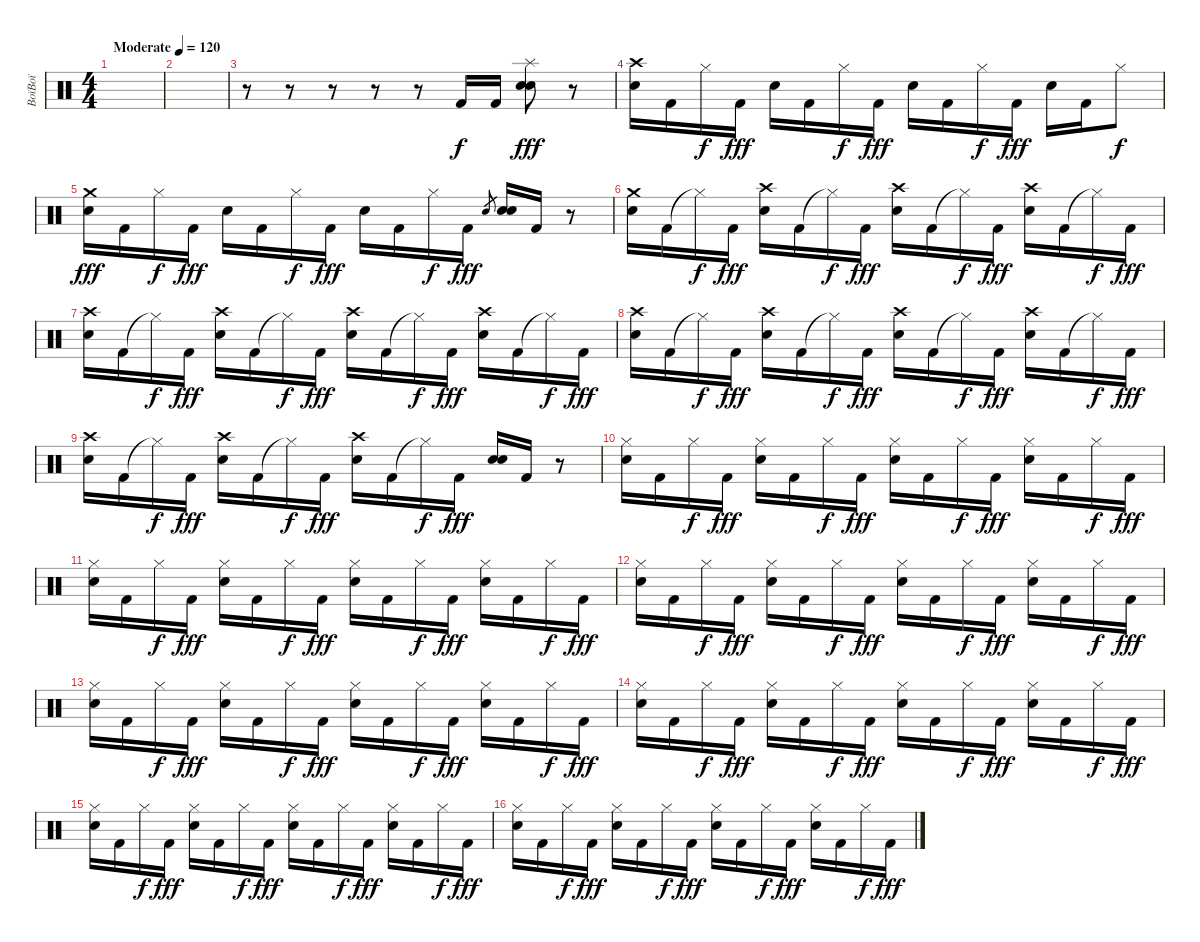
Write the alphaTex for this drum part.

\track ("BoïBoï" "BoïBoï") {instrument percussion}
\staff {score}
\articulation defaults
\ts (4 4)
\tempo (120 "Moderate")
\clef neutral
\ks c
|
|
r.8 r.8 r.8 r.8 r.8 "Kick (hit) 2".16 "Kick (hit) 2".16{dy f} ("Splash (hit)" "Electric Snare (hit)" "Snare (hit) 2").8{dy fff} r.8 |
("Crash high (hit)" "Electric Snare (hit)").16 "Kick (hit) 2".16 "Hi-Hat (closed)".16{dy f} "Kick (hit) 2".16{dy fff} "Electric Snare (hit)".16 "Kick (hit) 2".16 "Hi-Hat (closed)".16{dy f} "Kick (hit) 2".16{dy fff} "Electric Snare (hit)".16 "Kick (hit) 2".16 "Hi-Hat (closed)".16{dy f} "Kick (hit) 2".16{dy fff} "Electric Snare (hit)".16 "Kick (hit) 2".16 "Hi-Hat (closed)".8{dy f} |
("Crash medium (hit)" "Electric Snare (hit)").16{dy fff} "Kick (hit) 2".16 "Hi-Hat (closed)".16{dy f} "Kick (hit) 2".16{dy fff} "Electric Snare (hit)".16 "Kick (hit) 2".16 "Hi-Hat (closed)".16{dy f} "Kick (hit) 2".16{dy fff} "Electric Snare (hit)".16 "Kick (hit) 2".16 "Hi-Hat (closed)".16{dy f} "Kick (hit) 2".16{dy fff} "Electric Snare (hit)".8{gr} ("Electric Snare (hit)" "Snare (hit) 2").16 "Kick (hit) 2".16 r.8 |
("Crash medium (hit)" "Electric Snare (hit)").16 "Kick (hit) 2".16 "Hi-Hat (closed)"{t}.16{dy f} "Kick (hit) 2".16{dy fff} ("Crash high (hit)" "Electric Snare (hit)").16 "Kick (hit) 2".16 "Hi-Hat (closed)"{t}.16{dy f} "Kick (hit) 2".16{dy fff} ("Crash high (hit)" "Electric Snare (hit)").16 "Kick (hit) 2".16 "Hi-Hat (closed)"{t}.16{dy f} "Kick (hit) 2".16{dy fff} ("Crash high (hit)" "Electric Snare (hit)").16 "Kick (hit) 2".16 "Hi-Hat (closed)"{t}.16{dy f} "Kick (hit) 2".16{dy fff} |
("Crash high (hit)" "Electric Snare (hit)").16 "Kick (hit) 2".16 "Hi-Hat (closed)"{t}.16{dy f} "Kick (hit) 2".16{dy fff} ("Crash high (hit)" "Electric Snare (hit)").16 "Kick (hit) 2".16 "Hi-Hat (closed)"{t}.16{dy f} "Kick (hit) 2".16{dy fff} ("Crash high (hit)" "Electric Snare (hit)").16 "Kick (hit) 2".16 "Hi-Hat (closed)"{t}.16{dy f} "Kick (hit) 2".16{dy fff} ("Crash high (hit)" "Electric Snare (hit)").16 "Kick (hit) 2".16 "Hi-Hat (closed)"{t}.16{dy f} "Kick (hit) 2".16{dy fff} |
("Crash high (hit)" "Electric Snare (hit)").16 "Kick (hit) 2".16 "Hi-Hat (closed)"{t}.16{dy f} "Kick (hit) 2".16{dy fff} ("Crash high (hit)" "Electric Snare (hit)").16 "Kick (hit) 2".16 "Hi-Hat (closed)"{t}.16{dy f} "Kick (hit) 2".16{dy fff} ("Crash high (hit)" "Electric Snare (hit)").16 "Kick (hit) 2".16 "Hi-Hat (closed)"{t}.16{dy f} "Kick (hit) 2".16{dy fff} ("Crash high (hit)" "Electric Snare (hit)").16 "Kick (hit) 2".16 "Hi-Hat (closed)"{t}.16{dy f} "Kick (hit) 2".16{dy fff} |
("Crash high (hit)" "Electric Snare (hit)").16 "Kick (hit) 2".16 "Hi-Hat (closed)"{t}.16{dy f} "Kick (hit) 2".16{dy fff} ("Crash high (hit)" "Electric Snare (hit)").16 "Kick (hit) 2".16 "Hi-Hat (closed)"{t}.16{dy f} "Kick (hit) 2".16{dy fff} ("Crash high (hit)" "Electric Snare (hit)").16 "Kick (hit) 2".16 "Hi-Hat (closed)"{t}.16{dy f} "Kick (hit) 2".16{dy fff} ("Electric Snare (hit)" "Snare (hit) 2").16 "Kick (hit) 2".16 r.8 |
("Hi-Hat (closed)" "Electric Snare (hit)").16 "Kick (hit) 2".16 "Hi-Hat (closed)".16{dy f} "Kick (hit) 2".16{dy fff} ("Hi-Hat (closed)" "Electric Snare (hit)").16 "Kick (hit) 2".16 "Hi-Hat (closed)".16{dy f} "Kick (hit) 2".16{dy fff} ("Hi-Hat (closed)" "Electric Snare (hit)").16 "Kick (hit) 2".16 "Hi-Hat (closed)".16{dy f} "Kick (hit) 2".16{dy fff} ("Hi-Hat (closed)" "Electric Snare (hit)").16 "Kick (hit) 2".16 "Hi-Hat (closed)".16{dy f} "Kick (hit) 2".16{dy fff} |
("Hi-Hat (closed)" "Electric Snare (hit)").16 "Kick (hit) 2".16 "Hi-Hat (closed)".16{dy f} "Kick (hit) 2".16{dy fff} ("Hi-Hat (closed)" "Electric Snare (hit)").16 "Kick (hit) 2".16 "Hi-Hat (closed)".16{dy f} "Kick (hit) 2".16{dy fff} ("Hi-Hat (closed)" "Electric Snare (hit)").16 "Kick (hit) 2".16 "Hi-Hat (closed)".16{dy f} "Kick (hit) 2".16{dy fff} ("Hi-Hat (closed)" "Electric Snare (hit)").16 "Kick (hit) 2".16 "Hi-Hat (closed)".16{dy f} "Kick (hit) 2".16{dy fff} |
("Hi-Hat (closed)" "Electric Snare (hit)").16 "Kick (hit) 2".16 "Hi-Hat (closed)".16{dy f} "Kick (hit) 2".16{dy fff} ("Hi-Hat (closed)" "Electric Snare (hit)").16 "Kick (hit) 2".16 "Hi-Hat (closed)".16{dy f} "Kick (hit) 2".16{dy fff} ("Hi-Hat (closed)" "Electric Snare (hit)").16 "Kick (hit) 2".16 "Hi-Hat (closed)".16{dy f} "Kick (hit) 2".16{dy fff} ("Hi-Hat (closed)" "Electric Snare (hit)").16 "Kick (hit) 2".16 "Hi-Hat (closed)".16{dy f} "Kick (hit) 2".16{dy fff} |
("Hi-Hat (closed)" "Electric Snare (hit)").16 "Kick (hit) 2".16 "Hi-Hat (closed)".16{dy f} "Kick (hit) 2".16{dy fff} ("Hi-Hat (closed)" "Electric Snare (hit)").16 "Kick (hit) 2".16 "Hi-Hat (closed)".16{dy f} "Kick (hit) 2".16{dy fff} ("Hi-Hat (closed)" "Electric Snare (hit)").16 "Kick (hit) 2".16 "Hi-Hat (closed)".16{dy f} "Kick (hit) 2".16{dy fff} ("Hi-Hat (closed)" "Electric Snare (hit)").16 "Kick (hit) 2".16 "Hi-Hat (closed)".16{dy f} "Kick (hit) 2".16{dy fff} |
("Hi-Hat (closed)" "Electric Snare (hit)").16 "Kick (hit) 2".16 "Hi-Hat (closed)".16{dy f} "Kick (hit) 2".16{dy fff} ("Hi-Hat (closed)" "Electric Snare (hit)").16 "Kick (hit) 2".16 "Hi-Hat (closed)".16{dy f} "Kick (hit) 2".16{dy fff} ("Hi-Hat (closed)" "Electric Snare (hit)").16 "Kick (hit) 2".16 "Hi-Hat (closed)".16{dy f} "Kick (hit) 2".16{dy fff} ("Hi-Hat (closed)" "Electric Snare (hit)").16 "Kick (hit) 2".16 "Hi-Hat (closed)".16{dy f} "Kick (hit) 2".16{dy fff} |
("Hi-Hat (closed)" "Electric Snare (hit)").16 "Kick (hit) 2".16 "Hi-Hat (closed)".16{dy f} "Kick (hit) 2".16{dy fff} ("Hi-Hat (closed)" "Electric Snare (hit)").16 "Kick (hit) 2".16 "Hi-Hat (closed)".16{dy f} "Kick (hit) 2".16{dy fff} ("Hi-Hat (closed)" "Electric Snare (hit)").16 "Kick (hit) 2".16 "Hi-Hat (closed)".16{dy f} "Kick (hit) 2".16{dy fff} ("Hi-Hat (closed)" "Electric Snare (hit)").16 "Kick (hit) 2".16 "Hi-Hat (closed)".16{dy f} "Kick (hit) 2".16{dy fff} |
("Hi-Hat (closed)" "Electric Snare (hit)").16 "Kick (hit) 2".16 "Hi-Hat (closed)".16{dy f} "Kick (hit) 2".16{dy fff} ("Hi-Hat (closed)" "Electric Snare (hit)").16 "Kick (hit) 2".16 "Hi-Hat (closed)".16{dy f} "Kick (hit) 2".16{dy fff} ("Hi-Hat (closed)" "Electric Snare (hit)").16 "Kick (hit) 2".16 "Hi-Hat (closed)".16{dy f} "Kick (hit) 2".16{dy fff} ("Hi-Hat (closed)" "Electric Snare (hit)").16 "Kick (hit) 2".16 "Hi-Hat (closed)".16{dy f} "Kick (hit) 2".16{dy fff}
